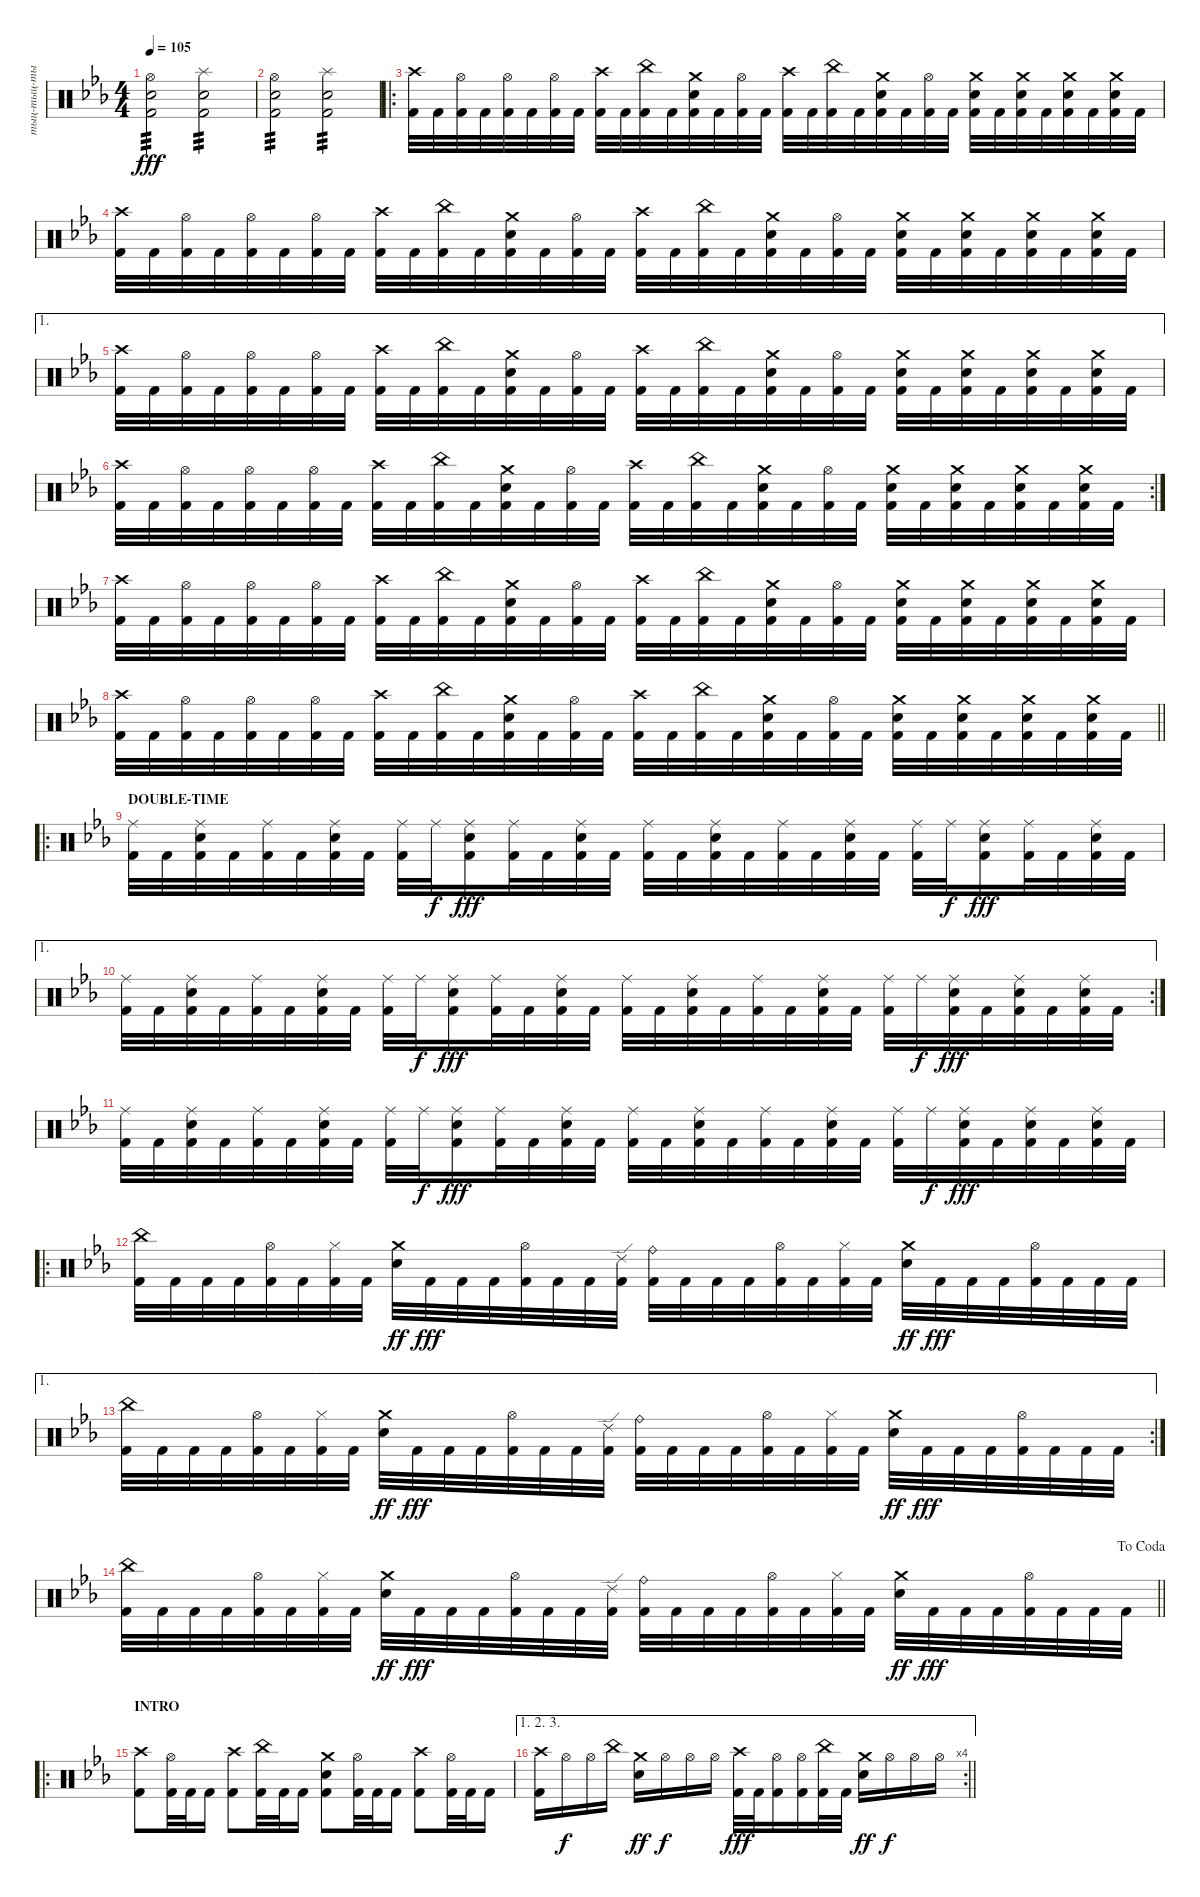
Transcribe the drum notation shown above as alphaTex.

\track ("тыц-тыц-тыц..." "тыц-тыц-ты") {instrument percussion}
\staff
\articulation defaults
\ts (4 4)
\tempo 105
\clef neutral
\ks cminor
("Hi-Hat (open)" "Electric Snare (hit)" "Kick (hit) 2").2{tp 3 dy fff} ("Splash (hit)" "Electric Snare (hit)" "Kick (hit) 2").2{tp 3} |
("Hi-Hat (open)" "Electric Snare (hit)" "Kick (hit) 2").2{tp 3} ("Splash (hit)" "Electric Snare (hit)" "Kick (hit) 2").2{tp 3} |
\ro
("Crash high (hit)" "Kick (hit) 2").32 "Kick (hit) 2".32 ("Hi-Hat (open)" "Kick (hit) 2").32 "Kick (hit) 2".32 ("Hi-Hat (open)" "Kick (hit) 2").32 "Kick (hit) 2".32 ("Hi-Hat (open)" "Kick (hit) 2").32 "Kick (hit) 2".32 ("Crash high (hit)" "Kick (hit) 2").32 "Kick (hit) 2".32 ("China (hit)" "Kick (hit) 2").32 "Kick (hit) 2".32 ("Crash medium (hit)" "Electric Snare (hit)" "Kick (hit) 2").32 "Kick (hit) 2".32 ("Hi-Hat (open)" "Kick (hit) 2").32 "Kick (hit) 2".32 ("Crash high (hit)" "Kick (hit) 2").32 "Kick (hit) 2".32 ("China (hit)" "Kick (hit) 2").32 "Kick (hit) 2".32 ("Crash medium (hit)" "Electric Snare (hit)" "Kick (hit) 2").32 "Kick (hit) 2".32 ("Hi-Hat (open)" "Kick (hit) 2").32 "Kick (hit) 2".32 ("Crash medium (hit)" "Electric Snare (hit)" "Kick (hit) 2").32 "Kick (hit) 2".32 ("Crash medium (hit)" "Electric Snare (hit)" "Kick (hit) 2").32 "Kick (hit) 2".32 ("Crash medium (hit)" "Electric Snare (hit)" "Kick (hit) 2").32 "Kick (hit) 2".32 ("Crash medium (hit)" "Electric Snare (hit)" "Kick (hit) 2").32 "Kick (hit) 2".32 |
("Crash high (hit)" "Kick (hit) 2").32 "Kick (hit) 2".32 ("Hi-Hat (open)" "Kick (hit) 2").32 "Kick (hit) 2".32 ("Hi-Hat (open)" "Kick (hit) 2").32 "Kick (hit) 2".32 ("Hi-Hat (open)" "Kick (hit) 2").32 "Kick (hit) 2".32 ("Crash high (hit)" "Kick (hit) 2").32 "Kick (hit) 2".32 ("China (hit)" "Kick (hit) 2").32 "Kick (hit) 2".32 ("Crash medium (hit)" "Electric Snare (hit)" "Kick (hit) 2").32 "Kick (hit) 2".32 ("Hi-Hat (open)" "Kick (hit) 2").32 "Kick (hit) 2".32 ("Crash high (hit)" "Kick (hit) 2").32 "Kick (hit) 2".32 ("China (hit)" "Kick (hit) 2").32 "Kick (hit) 2".32 ("Crash medium (hit)" "Electric Snare (hit)" "Kick (hit) 2").32 "Kick (hit) 2".32 ("Hi-Hat (open)" "Kick (hit) 2").32 "Kick (hit) 2".32 ("Crash medium (hit)" "Electric Snare (hit)" "Kick (hit) 2").32 "Kick (hit) 2".32 ("Crash medium (hit)" "Electric Snare (hit)" "Kick (hit) 2").32 "Kick (hit) 2".32 ("Crash medium (hit)" "Electric Snare (hit)" "Kick (hit) 2").32 "Kick (hit) 2".32 ("Crash medium (hit)" "Electric Snare (hit)" "Kick (hit) 2").32 "Kick (hit) 2".32 |
\ae 1
("Crash high (hit)" "Kick (hit) 2").32 "Kick (hit) 2".32 ("Hi-Hat (open)" "Kick (hit) 2").32 "Kick (hit) 2".32 ("Hi-Hat (open)" "Kick (hit) 2").32 "Kick (hit) 2".32 ("Hi-Hat (open)" "Kick (hit) 2").32 "Kick (hit) 2".32 ("Crash high (hit)" "Kick (hit) 2").32 "Kick (hit) 2".32 ("China (hit)" "Kick (hit) 2").32 "Kick (hit) 2".32 ("Crash medium (hit)" "Electric Snare (hit)" "Kick (hit) 2").32 "Kick (hit) 2".32 ("Hi-Hat (open)" "Kick (hit) 2").32 "Kick (hit) 2".32 ("Crash high (hit)" "Kick (hit) 2").32 "Kick (hit) 2".32 ("China (hit)" "Kick (hit) 2").32 "Kick (hit) 2".32 ("Crash medium (hit)" "Electric Snare (hit)" "Kick (hit) 2").32 "Kick (hit) 2".32 ("Hi-Hat (open)" "Kick (hit) 2").32 "Kick (hit) 2".32 ("Crash medium (hit)" "Electric Snare (hit)" "Kick (hit) 2").32 "Kick (hit) 2".32 ("Crash medium (hit)" "Electric Snare (hit)" "Kick (hit) 2").32 "Kick (hit) 2".32 ("Crash medium (hit)" "Electric Snare (hit)" "Kick (hit) 2").32 "Kick (hit) 2".32 ("Crash medium (hit)" "Electric Snare (hit)" "Kick (hit) 2").32 "Kick (hit) 2".32 |
\rc 2
("Crash high (hit)" "Kick (hit) 2").32 "Kick (hit) 2".32 ("Hi-Hat (open)" "Kick (hit) 2").32 "Kick (hit) 2".32 ("Hi-Hat (open)" "Kick (hit) 2").32 "Kick (hit) 2".32 ("Hi-Hat (open)" "Kick (hit) 2").32 "Kick (hit) 2".32 ("Crash high (hit)" "Kick (hit) 2").32 "Kick (hit) 2".32 ("China (hit)" "Kick (hit) 2").32 "Kick (hit) 2".32 ("Crash medium (hit)" "Electric Snare (hit)" "Kick (hit) 2").32 "Kick (hit) 2".32 ("Hi-Hat (open)" "Kick (hit) 2").32 "Kick (hit) 2".32 ("Crash high (hit)" "Kick (hit) 2").32 "Kick (hit) 2".32 ("China (hit)" "Kick (hit) 2").32 "Kick (hit) 2".32 ("Crash medium (hit)" "Electric Snare (hit)" "Kick (hit) 2").32 "Kick (hit) 2".32 ("Hi-Hat (open)" "Kick (hit) 2").32 "Kick (hit) 2".32 ("Crash medium (hit)" "Electric Snare (hit)" "Kick (hit) 2").32 "Kick (hit) 2".32 ("Crash medium (hit)" "Electric Snare (hit)" "Kick (hit) 2").32 "Kick (hit) 2".32 ("Crash medium (hit)" "Electric Snare (hit)" "Kick (hit) 2").32 "Kick (hit) 2".32 ("Crash medium (hit)" "Electric Snare (hit)" "Kick (hit) 2").32 "Kick (hit) 2".32 |
("Crash high (hit)" "Kick (hit) 2").32 "Kick (hit) 2".32 ("Hi-Hat (open)" "Kick (hit) 2").32 "Kick (hit) 2".32 ("Hi-Hat (open)" "Kick (hit) 2").32 "Kick (hit) 2".32 ("Hi-Hat (open)" "Kick (hit) 2").32 "Kick (hit) 2".32 ("Crash high (hit)" "Kick (hit) 2").32 "Kick (hit) 2".32 ("China (hit)" "Kick (hit) 2").32 "Kick (hit) 2".32 ("Crash medium (hit)" "Electric Snare (hit)" "Kick (hit) 2").32 "Kick (hit) 2".32 ("Hi-Hat (open)" "Kick (hit) 2").32 "Kick (hit) 2".32 ("Crash high (hit)" "Kick (hit) 2").32 "Kick (hit) 2".32 ("China (hit)" "Kick (hit) 2").32 "Kick (hit) 2".32 ("Crash medium (hit)" "Electric Snare (hit)" "Kick (hit) 2").32 "Kick (hit) 2".32 ("Hi-Hat (open)" "Kick (hit) 2").32 "Kick (hit) 2".32 ("Crash medium (hit)" "Electric Snare (hit)" "Kick (hit) 2").32 "Kick (hit) 2".32 ("Crash medium (hit)" "Electric Snare (hit)" "Kick (hit) 2").32 "Kick (hit) 2".32 ("Crash medium (hit)" "Electric Snare (hit)" "Kick (hit) 2").32 "Kick (hit) 2".32 ("Crash medium (hit)" "Electric Snare (hit)" "Kick (hit) 2").32 "Kick (hit) 2".32 |
\barLineRight lightlight
("Crash high (hit)" "Kick (hit) 2").32 "Kick (hit) 2".32 ("Hi-Hat (open)" "Kick (hit) 2").32 "Kick (hit) 2".32 ("Hi-Hat (open)" "Kick (hit) 2").32 "Kick (hit) 2".32 ("Hi-Hat (open)" "Kick (hit) 2").32 "Kick (hit) 2".32 ("Crash high (hit)" "Kick (hit) 2").32 "Kick (hit) 2".32 ("China (hit)" "Kick (hit) 2").32 "Kick (hit) 2".32 ("Crash medium (hit)" "Electric Snare (hit)" "Kick (hit) 2").32 "Kick (hit) 2".32 ("Hi-Hat (open)" "Kick (hit) 2").32 "Kick (hit) 2".32 ("Crash high (hit)" "Kick (hit) 2").32 "Kick (hit) 2".32 ("China (hit)" "Kick (hit) 2").32 "Kick (hit) 2".32 ("Crash medium (hit)" "Electric Snare (hit)" "Kick (hit) 2").32 "Kick (hit) 2".32 ("Hi-Hat (open)" "Kick (hit) 2").32 "Kick (hit) 2".32 ("Crash medium (hit)" "Electric Snare (hit)" "Kick (hit) 2").32 "Kick (hit) 2".32 ("Crash medium (hit)" "Electric Snare (hit)" "Kick (hit) 2").32 "Kick (hit) 2".32 ("Crash medium (hit)" "Electric Snare (hit)" "Kick (hit) 2").32 "Kick (hit) 2".32 ("Crash medium (hit)" "Electric Snare (hit)" "Kick (hit) 2").32 "Kick (hit) 2".32 |
\ro
\section ("" "DOUBLE-TIME")
("Ride (middle)" "Kick (hit) 2").32 "Kick (hit) 2".32 ("Ride (middle)" "Electric Snare (hit)" "Kick (hit) 2").32 "Kick (hit) 2".32 ("Ride (middle)" "Kick (hit) 2").32 "Kick (hit) 2".32 ("Ride (middle)" "Electric Snare (hit)" "Kick (hit) 2").32 "Kick (hit) 2".32 ("Ride (middle)" "Kick (hit) 2").32 "Ride (middle)".32{dy f} ("Ride (middle)" "Electric Snare (hit)" "Kick (hit) 2").16{dy fff} ("Ride (middle)" "Kick (hit) 2").32 "Kick (hit) 2".32 ("Ride (middle)" "Electric Snare (hit)" "Kick (hit) 2").32 "Kick (hit) 2".32 ("Ride (middle)" "Kick (hit) 2").32 "Kick (hit) 2".32 ("Ride (middle)" "Electric Snare (hit)" "Kick (hit) 2").32 "Kick (hit) 2".32 ("Ride (middle)" "Kick (hit) 2").32 "Kick (hit) 2".32 ("Ride (middle)" "Electric Snare (hit)" "Kick (hit) 2").32 "Kick (hit) 2".32 ("Ride (middle)" "Kick (hit) 2").32 "Ride (middle)".32{dy f} ("Ride (middle)" "Electric Snare (hit)" "Kick (hit) 2").16{dy fff} ("Ride (middle)" "Kick (hit) 2").32 "Kick (hit) 2".32 ("Ride (middle)" "Electric Snare (hit)" "Kick (hit) 2").32 "Kick (hit) 2".32 |
\ae 1
\rc 2
("Ride (middle)" "Kick (hit) 2").32 "Kick (hit) 2".32 ("Ride (middle)" "Electric Snare (hit)" "Kick (hit) 2").32 "Kick (hit) 2".32 ("Ride (middle)" "Kick (hit) 2").32 "Kick (hit) 2".32 ("Ride (middle)" "Electric Snare (hit)" "Kick (hit) 2").32 "Kick (hit) 2".32 ("Ride (middle)" "Kick (hit) 2").32 "Ride (middle)".32{dy f} ("Ride (middle)" "Electric Snare (hit)" "Kick (hit) 2").16{dy fff} ("Ride (middle)" "Kick (hit) 2").32 "Kick (hit) 2".32 ("Ride (middle)" "Electric Snare (hit)" "Kick (hit) 2").32 "Kick (hit) 2".32 ("Ride (middle)" "Kick (hit) 2").32 "Kick (hit) 2".32 ("Ride (middle)" "Electric Snare (hit)" "Kick (hit) 2").32 "Kick (hit) 2".32 ("Ride (middle)" "Kick (hit) 2").32 "Kick (hit) 2".32 ("Ride (middle)" "Electric Snare (hit)" "Kick (hit) 2").32 "Kick (hit) 2".32 ("Ride (middle)" "Kick (hit) 2").32 "Ride (middle)".32{dy f} ("Ride (middle)" "Electric Snare (hit)" "Kick (hit) 2").32{dy fff} "Kick (hit) 2".32 ("Ride (middle)" "Electric Snare (hit)" "Kick (hit) 2").32 "Kick (hit) 2".32 ("Ride (middle)" "Electric Snare (hit)" "Kick (hit) 2").32 "Kick (hit) 2".32 |
("Ride (middle)" "Kick (hit) 2").32 "Kick (hit) 2".32 ("Ride (middle)" "Electric Snare (hit)" "Kick (hit) 2").32 "Kick (hit) 2".32 ("Ride (middle)" "Kick (hit) 2").32 "Kick (hit) 2".32 ("Ride (middle)" "Electric Snare (hit)" "Kick (hit) 2").32 "Kick (hit) 2".32 ("Ride (middle)" "Kick (hit) 2").32 "Ride (middle)".32{dy f} ("Ride (middle)" "Electric Snare (hit)" "Kick (hit) 2").16{dy fff} ("Ride (middle)" "Kick (hit) 2").32 "Kick (hit) 2".32 ("Ride (middle)" "Electric Snare (hit)" "Kick (hit) 2").32 "Kick (hit) 2".32 ("Ride (middle)" "Kick (hit) 2").32 "Kick (hit) 2".32 ("Ride (middle)" "Electric Snare (hit)" "Kick (hit) 2").32 "Kick (hit) 2".32 ("Ride (middle)" "Kick (hit) 2").32 "Kick (hit) 2".32 ("Ride (middle)" "Electric Snare (hit)" "Kick (hit) 2").32 "Kick (hit) 2".32 ("Ride (middle)" "Kick (hit) 2").32 "Ride (middle)".32{dy f} ("Ride (middle)" "Electric Snare (hit)" "Kick (hit) 2").32{dy fff} "Kick (hit) 2".32 ("Ride (middle)" "Electric Snare (hit)" "Kick (hit) 2").32 "Kick (hit) 2".32 ("Ride (middle)" "Electric Snare (hit)" "Kick (hit) 2").32 "Kick (hit) 2".32 |
\ro
("China (hit)" "Kick (hit) 2").32 "Kick (hit) 2".32 "Kick (hit) 2".32 "Kick (hit) 2".32 ("Hi-Hat (open)" "Kick (hit) 2").32 "Kick (hit) 2".32 ("Hi-Hat (closed)" "Kick (hit) 2").32 "Kick (hit) 2".32 ("Crash medium (hit)" "Electric Snare (hit)").32{dy ff} "Kick (hit) 2".32{dy fff} "Kick (hit) 2".32 "Kick (hit) 2".32 ("Hi-Hat (open)" "Kick (hit) 2").32 "Kick (hit) 2".32 "Kick (hit) 2".32 ("Ride (edge) 2" "Kick (hit) 2").32 ("Ride (bell)" "Kick (hit) 2").32 "Kick (hit) 2".32 "Kick (hit) 2".32 "Kick (hit) 2".32 ("Hi-Hat (open)" "Kick (hit) 2").32 "Kick (hit) 2".32 ("Hi-Hat (closed)" "Kick (hit) 2").32 "Kick (hit) 2".32 ("Crash medium (hit)" "Electric Snare (hit)").32{dy ff} "Kick (hit) 2".32{dy fff} "Kick (hit) 2".32 "Kick (hit) 2".32 ("Hi-Hat (open)" "Kick (hit) 2").32 "Kick (hit) 2".32 "Kick (hit) 2".32 "Kick (hit) 2".32 |
\ae 1
\rc 2
("China (hit)" "Kick (hit) 2").32 "Kick (hit) 2".32 "Kick (hit) 2".32 "Kick (hit) 2".32 ("Hi-Hat (open)" "Kick (hit) 2").32 "Kick (hit) 2".32 ("Hi-Hat (closed)" "Kick (hit) 2").32 "Kick (hit) 2".32 ("Crash medium (hit)" "Electric Snare (hit)").32{dy ff} "Kick (hit) 2".32{dy fff} "Kick (hit) 2".32 "Kick (hit) 2".32 ("Hi-Hat (open)" "Kick (hit) 2").32 "Kick (hit) 2".32 "Kick (hit) 2".32 ("Ride (edge) 2" "Kick (hit) 2").32 ("Ride (bell)" "Kick (hit) 2").32 "Kick (hit) 2".32 "Kick (hit) 2".32 "Kick (hit) 2".32 ("Hi-Hat (open)" "Kick (hit) 2").32 "Kick (hit) 2".32 ("Hi-Hat (closed)" "Kick (hit) 2").32 "Kick (hit) 2".32 ("Crash medium (hit)" "Electric Snare (hit)").32{dy ff} "Kick (hit) 2".32{dy fff} "Kick (hit) 2".32 "Kick (hit) 2".32 ("Hi-Hat (open)" "Kick (hit) 2").32 "Kick (hit) 2".32 "Kick (hit) 2".32 "Kick (hit) 2".32 |
\jump dacoda
\barLineRight lightlight
("China (hit)" "Kick (hit) 2").32 "Kick (hit) 2".32 "Kick (hit) 2".32 "Kick (hit) 2".32 ("Hi-Hat (open)" "Kick (hit) 2").32 "Kick (hit) 2".32 ("Hi-Hat (closed)" "Kick (hit) 2").32 "Kick (hit) 2".32 ("Crash medium (hit)" "Electric Snare (hit)").32{dy ff} "Kick (hit) 2".32{dy fff} "Kick (hit) 2".32 "Kick (hit) 2".32 ("Hi-Hat (open)" "Kick (hit) 2").32 "Kick (hit) 2".32 "Kick (hit) 2".32 ("Ride (edge) 2" "Kick (hit) 2").32 ("Ride (bell)" "Kick (hit) 2").32 "Kick (hit) 2".32 "Kick (hit) 2".32 "Kick (hit) 2".32 ("Hi-Hat (open)" "Kick (hit) 2").32 "Kick (hit) 2".32 ("Hi-Hat (closed)" "Kick (hit) 2").32 "Kick (hit) 2".32 ("Crash medium (hit)" "Electric Snare (hit)").32{dy ff} "Kick (hit) 2".32{dy fff} "Kick (hit) 2".32 "Kick (hit) 2".32 ("Hi-Hat (open)" "Kick (hit) 2").32 "Kick (hit) 2".32 "Kick (hit) 2".32 "Kick (hit) 2".32 |
\ro
\section ("" "INTRO")
("Crash high (hit)" "Kick (hit) 2").8 ("Hi-Hat (open)" "Kick (hit) 2").32 "Kick (hit) 2".32 "Kick (hit) 2".16 ("Crash high (hit)" "Kick (hit) 2").8 ("China (hit)" "Kick (hit) 2").32 "Kick (hit) 2".32 "Kick (hit) 2".16 ("Crash medium (hit)" "Electric Snare (hit)" "Kick (hit) 2").8 ("Hi-Hat (open)" "Kick (hit) 2").32 "Kick (hit) 2".32 "Kick (hit) 2".16 ("Crash high (hit)" "Kick (hit) 2").8 ("Hi-Hat (open)" "Kick (hit) 2").32 "Kick (hit) 2".32 "Kick (hit) 2".16 |
\ae (1 2 3)
\rc 4
\barLineRight lightlight
("Crash high (hit)" "Kick (hit) 2").16 "Hi-Hat (open)".16{dy f} "Hi-Hat (open)".16 "China (hit)".16 ("Crash medium (hit)" "Electric Snare (hit)").16{dy ff} "Hi-Hat (open)".16{dy f} "Hi-Hat (open)".16 "Hi-Hat (open)".16 ("Crash high (hit)" "Kick (hit) 2").32{dy fff} "Kick (hit) 2".32 ("Hi-Hat (open)" "Kick (hit) 2").16 ("Hi-Hat (open)" "Kick (hit) 2").16 ("China (hit)" "Kick (hit) 2").32 "Kick (hit) 2".32 ("Crash medium (hit)" "Electric Snare (hit)").16{dy ff} "Hi-Hat (open)".16{dy f} "Hi-Hat (open)".16 "Hi-Hat (open)".16
